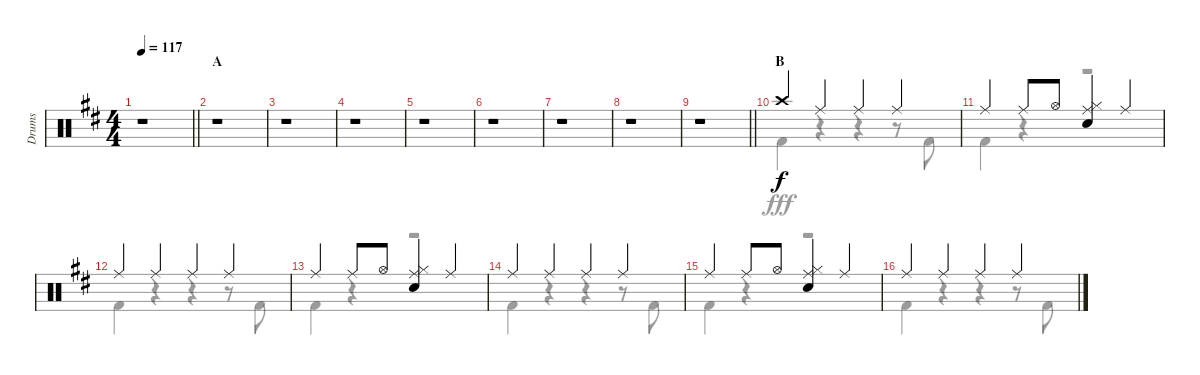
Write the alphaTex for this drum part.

\track ("Drums" "Drums") {instrument percussion}
\staff {score}
\articulation defaults
\voice
\ts (4 4)
\tempo 117
\clef neutral
\barLineRight lightlight
\ks d
r.1{dy f} |
\section ("" "A")
r.1 |
r.1 |
r.1 |
r.1 |
r.1 |
r.1 |
r.1 |
\barLineRight lightlight
r.1 |
\section ("" "B")
"Crash high (hit)".4 "Ride (middle)".4 "Ride (middle)".4 "Ride (middle)".4 |
"Ride (middle)".4 "Ride (middle)".8 "Hi-Hat (open)".8 ("Ride (middle)" "Hi-Hat (closed)" "Snare (hit) 2").4 "Ride (middle)".4 |
"Ride (middle)".4 "Ride (middle)".4 "Ride (middle)".4 "Ride (middle)".4 |
"Ride (middle)".4 "Ride (middle)".8 "Hi-Hat (open)".8 ("Ride (middle)" "Hi-Hat (closed)" "Snare (hit) 2").4 "Ride (middle)".4 |
"Ride (middle)".4 "Ride (middle)".4 "Ride (middle)".4 "Ride (middle)".4 |
"Ride (middle)".4 "Ride (middle)".8 "Hi-Hat (open)".8 ("Ride (middle)" "Hi-Hat (closed)" "Snare (hit) 2").4 "Ride (middle)".4 |
"Ride (middle)".4 "Ride (middle)".4 "Ride (middle)".4 "Ride (middle)".4
\voice
\clef neutral
\ottava regular
\simile none
\barLineRight lightlight
\ks d
r.1{dy fff} |
r.1 |
r.1 |
r.1 |
r.1 |
r.1 |
r.1 |
r.1 |
\barLineRight lightlight
r.1 |
"Kick (hit) 2".4 r.4 r.4 r.8 "Kick (hit) 2".8 |
"Kick (hit) 2".4 r.4 r.2 |
"Kick (hit) 2".4 r.4 r.4 r.8 "Kick (hit) 2".8 |
"Kick (hit) 2".4 r.4 r.2 |
"Kick (hit) 2".4 r.4 r.4 r.8 "Kick (hit) 2".8 |
"Kick (hit) 2".4 r.4 r.2 |
"Kick (hit) 2".4 r.4 r.4 r.8 "Kick (hit) 2".8
